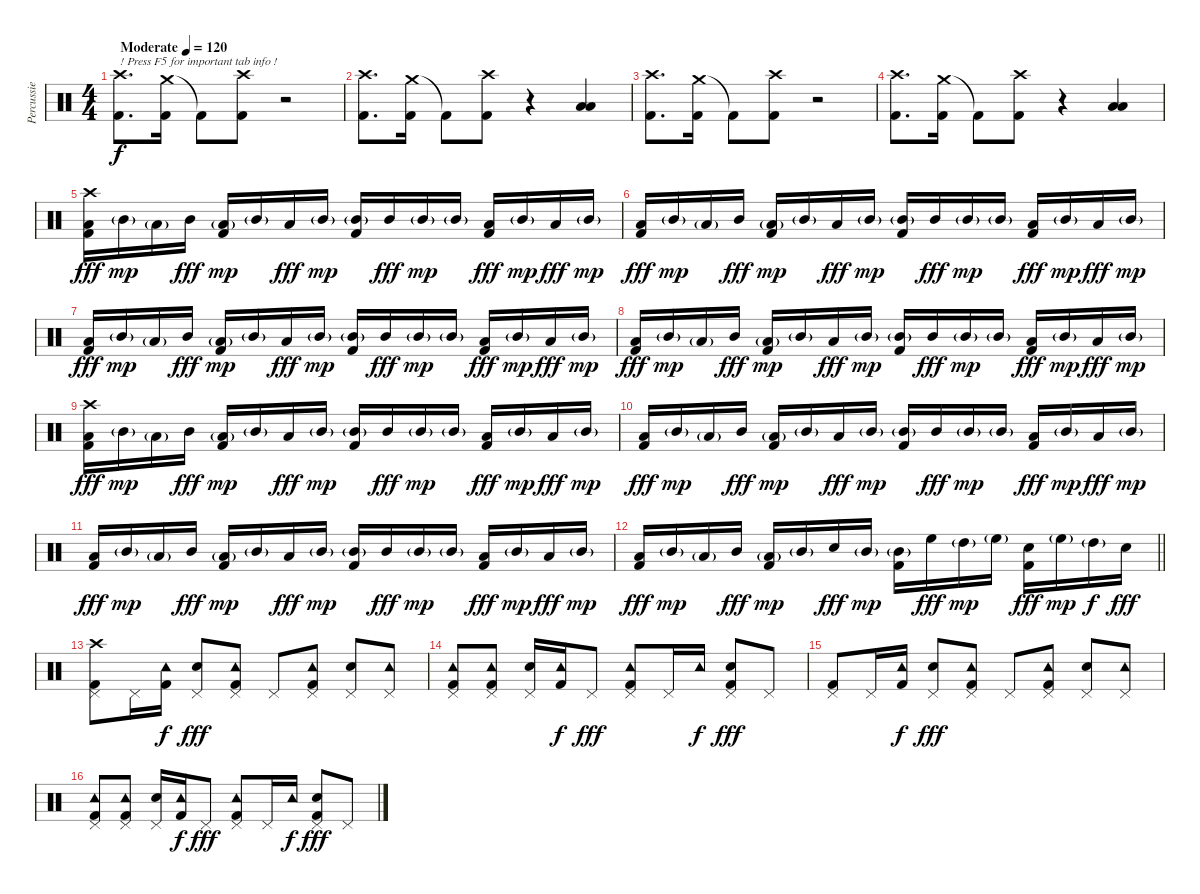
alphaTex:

\track ("Percussie" "Percussie") {instrument percussion}
\staff {score}
\articulation defaults
\ts (4 4)
\tempo (120 "Moderate")
\clef neutral
\ks c
("Crash high (hit)" "Kick (hit) 2").8{d txt "! Press F5 for important tab info !" dy f} ("Crash medium (hit)" "Kick (hit) 2").16 "Kick (hit) 2"{t}.8 ("Crash high (hit)" "Kick (hit) 2").8 r.2 |
("Crash high (hit)" "Kick (hit) 2").8{d} ("Crash medium (hit)" "Kick (hit) 2").16 "Kick (hit) 2"{t}.8 ("Crash high (hit)" "Kick (hit) 2").8 r.4 ("Low Tom (hit)" "Low Tom (hit)").4{bd 120} |
("Crash high (hit)" "Kick (hit) 2").8{d} ("Crash medium (hit)" "Kick (hit) 2").16 "Kick (hit) 2"{t}.8 ("Crash high (hit)" "Kick (hit) 2").8 r.2 |
("Crash high (hit)" "Kick (hit) 2").8{d} ("Crash medium (hit)" "Kick (hit) 2").16 "Kick (hit) 2"{t}.8 ("Crash high (hit)" "Kick (hit) 2").8 r.4 ("Low Tom (hit)" "Low Tom (hit)").4{bd 120} |
("Crash high (hit)" "Low Tom (hit)" "Kick (hit) 2").16{dy fff} "Mid Tom (hit)"{g}.16{dy mp} "Low Tom (hit)"{g}.16 "Mid Tom (hit)".16{dy fff} ("Low Tom (hit)"{g} "Kick (hit) 2").16{dy mp} "Mid Tom (hit)"{g}.16 "Low Tom (hit)".16{dy fff} "Mid Tom (hit)"{g}.16{dy mp} ("Mid Tom (hit)"{g} "Kick (hit) 2").16 "Mid Tom (hit)".16{dy fff} "Mid Tom (hit)"{g}.16{dy mp} "Mid Tom (hit)"{g}.16 ("Low Tom (hit)" "Kick (hit) 2").16{dy fff} "Mid Tom (hit)"{g}.16{dy mp} "Low Tom (hit)".16{dy fff} "Mid Tom (hit)"{g}.16{dy mp} |
("Low Tom (hit)" "Kick (hit) 2").16{dy fff} "Mid Tom (hit)"{g}.16{dy mp} "Low Tom (hit)"{g}.16 "Mid Tom (hit)".16{dy fff} ("Low Tom (hit)"{g} "Kick (hit) 2").16{dy mp} "Mid Tom (hit)"{g}.16 "Low Tom (hit)".16{dy fff} "Mid Tom (hit)"{g}.16{dy mp} ("Mid Tom (hit)"{g} "Kick (hit) 2").16 "Mid Tom (hit)".16{dy fff} "Mid Tom (hit)"{g}.16{dy mp} "Mid Tom (hit)"{g}.16 ("Low Tom (hit)" "Kick (hit) 2").16{dy fff} "Mid Tom (hit)"{g}.16{dy mp} "Low Tom (hit)".16{dy fff} "Mid Tom (hit)"{g}.16{dy mp} |
("Low Tom (hit)" "Kick (hit) 2").16{dy fff} "Mid Tom (hit)"{g}.16{dy mp} "Low Tom (hit)"{g}.16 "Mid Tom (hit)".16{dy fff} ("Low Tom (hit)"{g} "Kick (hit) 2").16{dy mp} "Mid Tom (hit)"{g}.16 "Low Tom (hit)".16{dy fff} "Mid Tom (hit)"{g}.16{dy mp} ("Mid Tom (hit)"{g} "Kick (hit) 2").16 "Mid Tom (hit)".16{dy fff} "Mid Tom (hit)"{g}.16{dy mp} "Mid Tom (hit)"{g}.16 ("Low Tom (hit)" "Kick (hit) 2").16{dy fff} "Mid Tom (hit)"{g}.16{dy mp} "Low Tom (hit)".16{dy fff} "Mid Tom (hit)"{g}.16{dy mp} |
("Low Tom (hit)" "Kick (hit) 2").16{dy fff} "Mid Tom (hit)"{g}.16{dy mp} "Low Tom (hit)"{g}.16 "Mid Tom (hit)".16{dy fff} ("Low Tom (hit)"{g} "Kick (hit) 2").16{dy mp} "Mid Tom (hit)"{g}.16 "Low Tom (hit)".16{dy fff} "Mid Tom (hit)"{g}.16{dy mp} ("Mid Tom (hit)"{g} "Kick (hit) 2").16 "Mid Tom (hit)".16{dy fff} "Mid Tom (hit)"{g}.16{dy mp} "Mid Tom (hit)"{g}.16 ("Low Tom (hit)" "Kick (hit) 2").16{dy fff} "Mid Tom (hit)"{g}.16{dy mp} "Low Tom (hit)".16{dy fff} "Mid Tom (hit)"{g}.16{dy mp} |
("Crash high (hit)" "Low Tom (hit)" "Kick (hit) 2").16{dy fff} "Mid Tom (hit)"{g}.16{dy mp} "Low Tom (hit)"{g}.16 "Mid Tom (hit)".16{dy fff} ("Low Tom (hit)"{g} "Kick (hit) 2").16{dy mp} "Mid Tom (hit)"{g}.16 "Low Tom (hit)".16{dy fff} "Mid Tom (hit)"{g}.16{dy mp} ("Mid Tom (hit)"{g} "Kick (hit) 2").16 "Mid Tom (hit)".16{dy fff} "Mid Tom (hit)"{g}.16{dy mp} "Mid Tom (hit)"{g}.16 ("Low Tom (hit)" "Kick (hit) 2").16{dy fff} "Mid Tom (hit)"{g}.16{dy mp} "Low Tom (hit)".16{dy fff} "Mid Tom (hit)"{g}.16{dy mp} |
("Low Tom (hit)" "Kick (hit) 2").16{dy fff} "Mid Tom (hit)"{g}.16{dy mp} "Low Tom (hit)"{g}.16 "Mid Tom (hit)".16{dy fff} ("Low Tom (hit)"{g} "Kick (hit) 2").16{dy mp} "Mid Tom (hit)"{g}.16 "Low Tom (hit)".16{dy fff} "Mid Tom (hit)"{g}.16{dy mp} ("Mid Tom (hit)"{g} "Kick (hit) 2").16 "Mid Tom (hit)".16{dy fff} "Mid Tom (hit)"{g}.16{dy mp} "Mid Tom (hit)"{g}.16 ("Low Tom (hit)" "Kick (hit) 2").16{dy fff} "Mid Tom (hit)"{g}.16{dy mp} "Low Tom (hit)".16{dy fff} "Mid Tom (hit)"{g}.16{dy mp} |
("Low Tom (hit)" "Kick (hit) 2").16{dy fff} "Mid Tom (hit)"{g}.16{dy mp} "Low Tom (hit)"{g}.16 "Mid Tom (hit)".16{dy fff} ("Low Tom (hit)"{g} "Kick (hit) 2").16{dy mp} "Mid Tom (hit)"{g}.16 "Low Tom (hit)".16{dy fff} "Mid Tom (hit)"{g}.16{dy mp} ("Mid Tom (hit)"{g} "Kick (hit) 2").16 "Mid Tom (hit)".16{dy fff} "Mid Tom (hit)"{g}.16{dy mp} "Mid Tom (hit)"{g}.16 ("Low Tom (hit)" "Kick (hit) 2").16{dy fff} "Mid Tom (hit)"{g}.16{dy mp} "Low Tom (hit)".16{dy fff} "Mid Tom (hit)"{g}.16{dy mp} |
\barLineRight lightlight
("Low Tom (hit)" "Kick (hit) 2").16{dy fff} "Mid Tom (hit)"{g}.16{dy mp} "Low Tom (hit)"{g}.16 "Mid Tom (hit)".16{dy fff} ("Low Tom (hit)"{g} "Kick (hit) 2").16{dy mp} "Mid Tom (hit)"{g}.16 "Snare (hit) 2".16{dy fff} "Mid Tom (hit)"{g}.16{dy mp} ("Mid Tom (hit)"{g} "Kick (hit) 2").16 "High Floor Tom (hit)".16{dy fff} "High Tom (hit)"{g}.16{dy mp} "High Floor Tom (hit)"{g}.16 ("Snare (hit) 2" "Kick (hit) 2").16{dy fff} "High Floor Tom (hit)"{g}.16{dy mp} "High Tom (hit)"{g}.16{dy f} "Snare (hit) 2".16{dy fff} |
("Crash high (hit)" "Pedal Hi-Hat (hit)" "Kick (hit) 2").8 "Pedal Hi-Hat (hit)".16 ("Tambourine (hit)" "Kick (hit) 2").16{dy f} ("Pedal Hi-Hat (hit)" "Snare (hit) 2").8{dy fff} ("Pedal Hi-Hat (hit)" "Tambourine (hit)" "Kick (hit) 2").8 "Pedal Hi-Hat (hit)".8 ("Pedal Hi-Hat (hit)" "Tambourine (hit)" "Kick (hit) 2").8 ("Pedal Hi-Hat (hit)" "Snare (hit) 2").8 ("Pedal Hi-Hat (hit)" "Tambourine (hit)").8 |
("Pedal Hi-Hat (hit)" "Tambourine (hit)" "Kick (hit) 2").8 ("Pedal Hi-Hat (hit)" "Tambourine (hit)" "Kick (hit) 2").8 ("Pedal Hi-Hat (hit)" "Snare (hit) 2").16 ("Tambourine (hit)" "Kick (hit) 2").16{dy f} "Pedal Hi-Hat (hit)".8{dy fff} ("Pedal Hi-Hat (hit)" "Tambourine (hit)" "Kick (hit) 2").8 "Pedal Hi-Hat (hit)".16 "Tambourine (hit)".16{dy f} ("Pedal Hi-Hat (hit)" "Snare (hit) 2" "Kick (hit) 2").8{dy fff} "Pedal Hi-Hat (hit)".8 |
("Pedal Hi-Hat (hit)" "Kick (hit) 2").8 "Pedal Hi-Hat (hit)".16 ("Tambourine (hit)" "Kick (hit) 2").16{dy f} ("Pedal Hi-Hat (hit)" "Snare (hit) 2").8{dy fff} ("Pedal Hi-Hat (hit)" "Tambourine (hit)" "Kick (hit) 2").8 "Pedal Hi-Hat (hit)".8 ("Pedal Hi-Hat (hit)" "Tambourine (hit)" "Kick (hit) 2").8 ("Pedal Hi-Hat (hit)" "Snare (hit) 2").8 ("Pedal Hi-Hat (hit)" "Tambourine (hit)").8 |
("Pedal Hi-Hat (hit)" "Tambourine (hit)" "Kick (hit) 2").8 ("Pedal Hi-Hat (hit)" "Tambourine (hit)" "Kick (hit) 2").8 ("Pedal Hi-Hat (hit)" "Snare (hit) 2").16 ("Tambourine (hit)" "Kick (hit) 2").16{dy f} "Pedal Hi-Hat (hit)".8{dy fff} ("Pedal Hi-Hat (hit)" "Tambourine (hit)" "Kick (hit) 2").8 "Pedal Hi-Hat (hit)".16 "Tambourine (hit)".16{dy f} ("Pedal Hi-Hat (hit)" "Snare (hit) 2" "Kick (hit) 2").8{dy fff} "Pedal Hi-Hat (hit)".8
